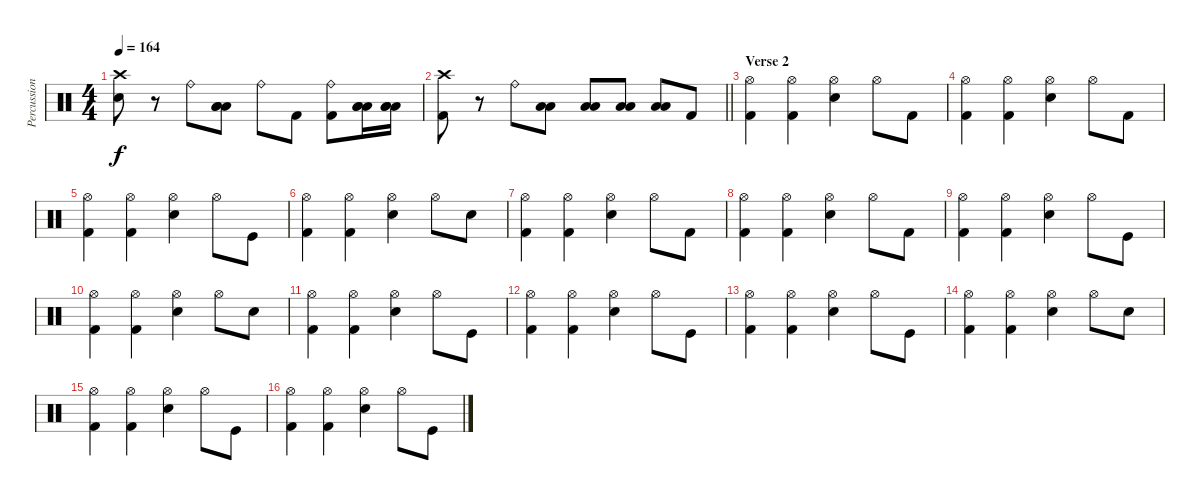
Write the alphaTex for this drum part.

\track ("Percussion" "Percussion") {instrument percussion}
\staff {score}
\articulation defaults
\ts (4 4)
\tempo 164
\clef neutral
\ks c
("Crash high (hit)" "Snare (hit) 2").8{dy f} r.8 "Ride (bell)".8 ("Low Tom (hit)" "Low Tom (hit)" "Low Tom (hit)").8 "Ride (bell)".8 "Kick (hit) 2".8 ("Kick (hit) 2" "Ride (bell)").8 ("Low Floor Tom (hit)" "Low Floor Tom (hit)" "Low Floor Tom (hit)").16 ("Low Floor Tom (hit)" "Low Floor Tom (hit)" "Low Floor Tom (hit)").16 |
\barLineRight lightlight
("Kick (hit) 2" "Crash high (hit)").8 r.8 "Ride (bell)".8 ("Low Tom (hit)" "Low Tom (hit)").8 ("Low Tom (hit)" "Low Tom (hit)").8 ("Low Floor Tom (hit)" "Low Floor Tom (hit)").8 ("Low Floor Tom (hit)" "Low Floor Tom (hit)").8 "Kick (hit) 2".8 |
\section ("" "Verse 2")
("Hi-Hat (open)" "Kick (hit) 2").4 ("Hi-Hat (open)" "Kick (hit) 2").4 ("Hi-Hat (open)" "Electric Snare (hit)").4 "Hi-Hat (open)".8 "Kick (hit) 2".8 |
("Hi-Hat (open)" "Kick (hit) 2").4 ("Hi-Hat (open)" "Kick (hit) 2").4 ("Hi-Hat (open)" "Electric Snare (hit)").4 "Hi-Hat (open)".8 "Kick (hit) 2".8 |
("Hi-Hat (open)" "Kick (hit) 2").4 ("Hi-Hat (open)" "Kick (hit) 2").4 ("Hi-Hat (open)" "Electric Snare (hit)").4 "Hi-Hat (open)".8 "Kick (hit)".8 |
("Hi-Hat (open)" "Kick (hit) 2").4 ("Hi-Hat (open)" "Kick (hit) 2").4 ("Hi-Hat (open)" "Electric Snare (hit)").4 "Hi-Hat (open)".8 "Snare (hit) 2".8 |
("Hi-Hat (open)" "Kick (hit) 2").4 ("Hi-Hat (open)" "Kick (hit) 2").4 ("Hi-Hat (open)" "Electric Snare (hit)").4 "Hi-Hat (open)".8 "Kick (hit) 2".8 |
("Hi-Hat (open)" "Kick (hit) 2").4 ("Hi-Hat (open)" "Kick (hit) 2").4 ("Hi-Hat (open)" "Electric Snare (hit)").4 "Hi-Hat (open)".8 "Kick (hit) 2".8 |
("Hi-Hat (open)" "Kick (hit) 2").4 ("Hi-Hat (open)" "Kick (hit) 2").4 ("Hi-Hat (open)" "Electric Snare (hit)").4 "Hi-Hat (open)".8 "Kick (hit)".8 |
("Hi-Hat (open)" "Kick (hit) 2").4 ("Hi-Hat (open)" "Kick (hit) 2").4 ("Hi-Hat (open)" "Electric Snare (hit)").4 "Hi-Hat (open)".8 "Snare (hit) 2".8 |
("Hi-Hat (open)" "Kick (hit) 2").4 ("Hi-Hat (open)" "Kick (hit) 2").4 ("Hi-Hat (open)" "Electric Snare (hit)").4 "Hi-Hat (open)".8 "Kick (hit)".8 |
("Hi-Hat (open)" "Kick (hit) 2").4 ("Hi-Hat (open)" "Kick (hit) 2").4 ("Hi-Hat (open)" "Electric Snare (hit)").4 "Hi-Hat (open)".8 "Kick (hit)".8 |
("Hi-Hat (open)" "Kick (hit) 2").4 ("Hi-Hat (open)" "Kick (hit) 2").4 ("Hi-Hat (open)" "Electric Snare (hit)").4 "Hi-Hat (open)".8 "Kick (hit)".8 |
("Hi-Hat (open)" "Kick (hit) 2").4 ("Hi-Hat (open)" "Kick (hit) 2").4 ("Hi-Hat (open)" "Electric Snare (hit)").4 "Hi-Hat (open)".8 "Snare (hit) 2".8 |
("Hi-Hat (open)" "Kick (hit) 2").4 ("Hi-Hat (open)" "Kick (hit) 2").4 ("Hi-Hat (open)" "Electric Snare (hit)").4 "Hi-Hat (open)".8 "Kick (hit)".8 |
("Hi-Hat (open)" "Kick (hit) 2").4 ("Hi-Hat (open)" "Kick (hit) 2").4 ("Hi-Hat (open)" "Electric Snare (hit)").4 "Hi-Hat (open)".8 "Kick (hit)".8
